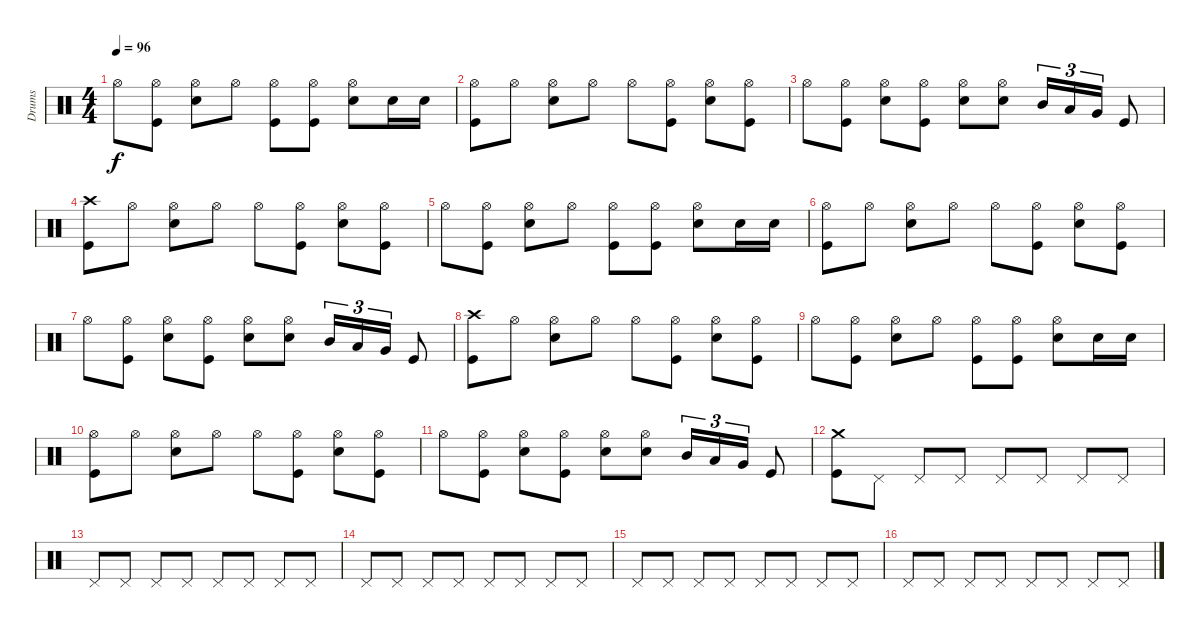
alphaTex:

\track ("Drums" "Drums") {instrument percussion}
\staff {score}
\articulation defaults
\ts (4 4)
\tempo 96
\clef neutral
\ks c "Hi-Hat (open)".8{dy f}
("Hi-Hat (open)" "Kick (hit)").8 ("Hi-Hat (open)" "Snare (hit) 2").8 "Hi-Hat (open)".8 ("Hi-Hat (open)" "Kick (hit)").8 ("Hi-Hat (open)" "Kick (hit)").8 ("Hi-Hat (open)" "Snare (hit) 2").8 "Snare (hit) 2".16 "Snare (hit) 2".16 |
("Hi-Hat (open)" "Kick (hit)").8 "Hi-Hat (open)".8 ("Hi-Hat (open)" "Snare (hit) 2").8 "Hi-Hat (open)".8 "Hi-Hat (open)".8 ("Hi-Hat (open)" "Kick (hit)").8 ("Hi-Hat (open)" "Snare (hit) 2").8 ("Hi-Hat (open)" "Kick (hit)").8 |
"Hi-Hat (open)".8 ("Hi-Hat (open)" "Kick (hit)").8 ("Hi-Hat (open)" "Snare (hit) 2").8 ("Hi-Hat (open)" "Kick (hit)").8 ("Hi-Hat (open)" "Snare (hit) 2").8 ("Hi-Hat (open)" "Snare (hit) 2").8 "Mid Tom (hit)".16{tu (3 2)} "Low Tom (hit)".16{tu (3 2)} "Very Low Tom (hit)".16{tu (3 2)} "Kick (hit)".8 |
("Crash high (hit)" "Kick (hit)").8 "Hi-Hat (open)".8 ("Hi-Hat (open)" "Snare (hit) 2").8 "Hi-Hat (open)".8 "Hi-Hat (open)".8 ("Hi-Hat (open)" "Kick (hit)").8 ("Hi-Hat (open)" "Snare (hit) 2").8 ("Hi-Hat (open)" "Kick (hit)").8 |
"Hi-Hat (open)".8 ("Hi-Hat (open)" "Kick (hit)").8 ("Hi-Hat (open)" "Snare (hit) 2").8 "Hi-Hat (open)".8 ("Hi-Hat (open)" "Kick (hit)").8 ("Hi-Hat (open)" "Kick (hit)").8 ("Hi-Hat (open)" "Snare (hit) 2").8 "Snare (hit) 2".16 "Snare (hit) 2".16 |
("Hi-Hat (open)" "Kick (hit)").8 "Hi-Hat (open)".8 ("Hi-Hat (open)" "Snare (hit) 2").8 "Hi-Hat (open)".8 "Hi-Hat (open)".8 ("Hi-Hat (open)" "Kick (hit)").8 ("Hi-Hat (open)" "Snare (hit) 2").8 ("Hi-Hat (open)" "Kick (hit)").8 |
"Hi-Hat (open)".8 ("Hi-Hat (open)" "Kick (hit)").8 ("Hi-Hat (open)" "Snare (hit) 2").8 ("Hi-Hat (open)" "Kick (hit)").8 ("Hi-Hat (open)" "Snare (hit) 2").8 ("Hi-Hat (open)" "Snare (hit) 2").8 "Mid Tom (hit)".16{tu (3 2)} "Low Tom (hit)".16{tu (3 2)} "Very Low Tom (hit)".16{tu (3 2)} "Kick (hit)".8 |
("Crash high (hit)" "Kick (hit)").8 "Hi-Hat (open)".8 ("Hi-Hat (open)" "Snare (hit) 2").8 "Hi-Hat (open)".8 "Hi-Hat (open)".8 ("Hi-Hat (open)" "Kick (hit)").8 ("Hi-Hat (open)" "Snare (hit) 2").8 ("Hi-Hat (open)" "Kick (hit)").8 |
"Hi-Hat (open)".8 ("Hi-Hat (open)" "Kick (hit)").8 ("Hi-Hat (open)" "Snare (hit) 2").8 "Hi-Hat (open)".8 ("Hi-Hat (open)" "Kick (hit)").8 ("Hi-Hat (open)" "Kick (hit)").8 ("Hi-Hat (open)" "Snare (hit) 2").8 "Snare (hit) 2".16 "Snare (hit) 2".16 |
("Hi-Hat (open)" "Kick (hit)").8 "Hi-Hat (open)".8 ("Hi-Hat (open)" "Snare (hit) 2").8 "Hi-Hat (open)".8 "Hi-Hat (open)".8 ("Hi-Hat (open)" "Kick (hit)").8 ("Hi-Hat (open)" "Snare (hit) 2").8 ("Hi-Hat (open)" "Kick (hit)").8 |
"Hi-Hat (open)".8 ("Hi-Hat (open)" "Kick (hit)").8 ("Hi-Hat (open)" "Snare (hit) 2").8 ("Hi-Hat (open)" "Kick (hit)").8 ("Hi-Hat (open)" "Snare (hit) 2").8 ("Hi-Hat (open)" "Snare (hit) 2").8 "Mid Tom (hit)".16{tu (3 2)} "Low Tom (hit)".16{tu (3 2)} "Very Low Tom (hit)".16{tu (3 2)} "Kick (hit)".8 |
("Crash medium (hit)" "Kick (hit)").8 "Pedal Hi-Hat (hit)".8 "Pedal Hi-Hat (hit)".8 "Pedal Hi-Hat (hit)".8 "Pedal Hi-Hat (hit)".8 "Pedal Hi-Hat (hit)".8 "Pedal Hi-Hat (hit)".8 "Pedal Hi-Hat (hit)".8 |
"Pedal Hi-Hat (hit)".8 "Pedal Hi-Hat (hit)".8 "Pedal Hi-Hat (hit)".8 "Pedal Hi-Hat (hit)".8 "Pedal Hi-Hat (hit)".8 "Pedal Hi-Hat (hit)".8 "Pedal Hi-Hat (hit)".8 "Pedal Hi-Hat (hit)".8 |
"Pedal Hi-Hat (hit)".8 "Pedal Hi-Hat (hit)".8 "Pedal Hi-Hat (hit)".8 "Pedal Hi-Hat (hit)".8 "Pedal Hi-Hat (hit)".8 "Pedal Hi-Hat (hit)".8 "Pedal Hi-Hat (hit)".8 "Pedal Hi-Hat (hit)".8 |
"Pedal Hi-Hat (hit)".8 "Pedal Hi-Hat (hit)".8 "Pedal Hi-Hat (hit)".8 "Pedal Hi-Hat (hit)".8 "Pedal Hi-Hat (hit)".8 "Pedal Hi-Hat (hit)".8 "Pedal Hi-Hat (hit)".8 "Pedal Hi-Hat (hit)".8 |
"Pedal Hi-Hat (hit)".8 "Pedal Hi-Hat (hit)".8 "Pedal Hi-Hat (hit)".8 "Pedal Hi-Hat (hit)".8 "Pedal Hi-Hat (hit)".8 "Pedal Hi-Hat (hit)".8 "Pedal Hi-Hat (hit)".8 "Pedal Hi-Hat (hit)".8
